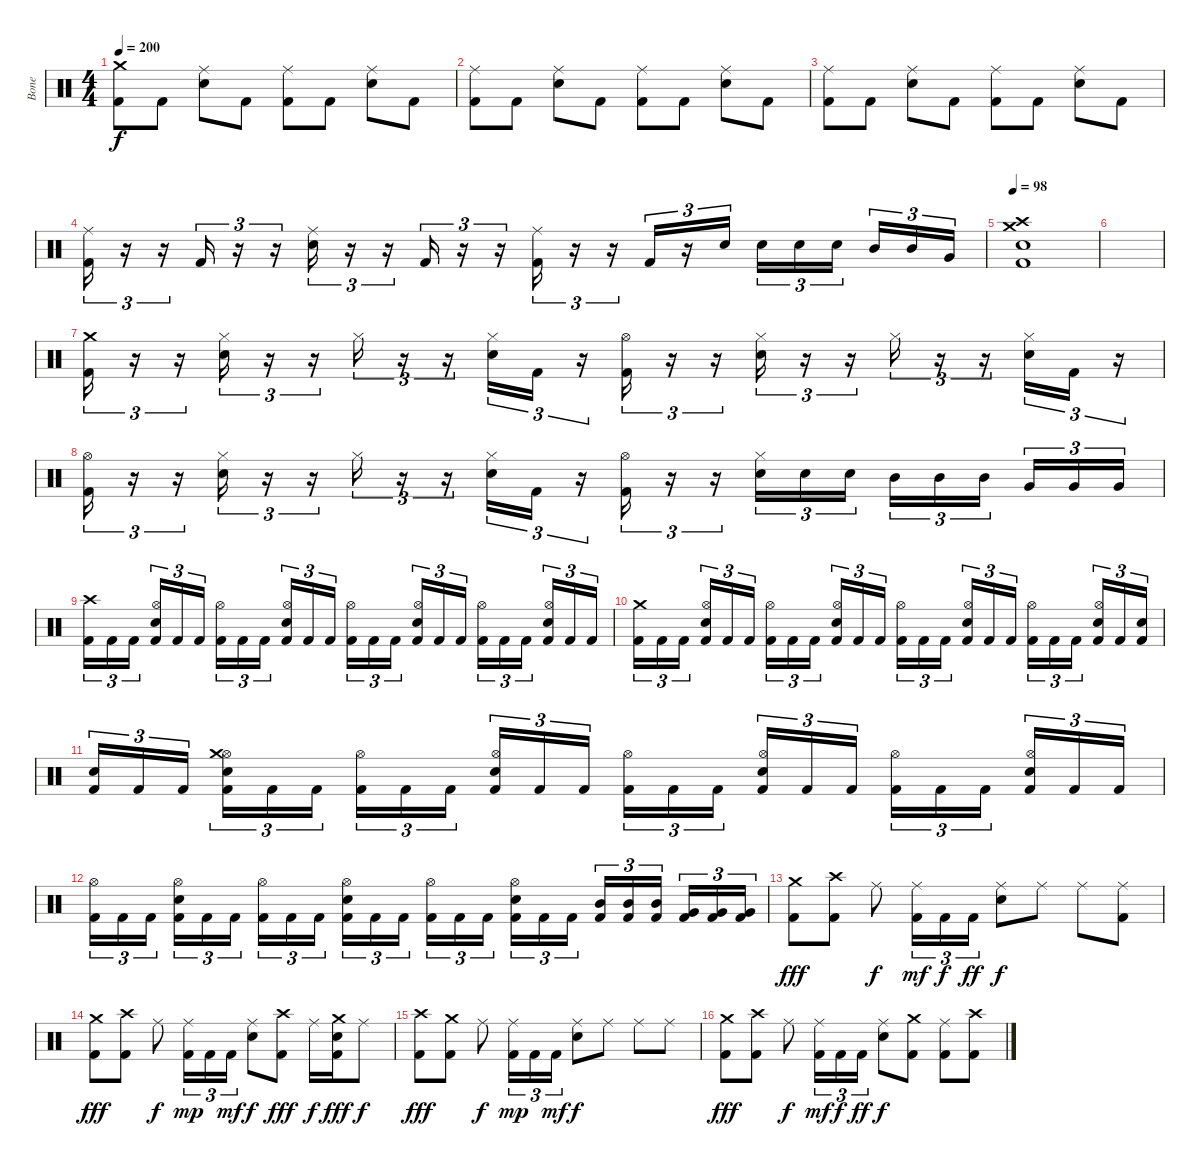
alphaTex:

\track ("Bone " "Bone ") {instrument percussion}
\staff {score}
\articulation defaults
\ts (4 4)
\tempo 200
\clef neutral
\ks c
("Crash medium (hit)" "Kick (hit) 2").8{dy f} "Kick (hit) 2".8 ("Ride (middle)" "Electric Snare (hit)").8 "Kick (hit) 2".8 ("Ride (middle)" "Kick (hit) 2").8 "Kick (hit) 2".8 ("Ride (middle)" "Electric Snare (hit)").8 "Kick (hit) 2".8 |
("Ride (middle)" "Kick (hit) 2").8 "Kick (hit) 2".8 ("Ride (middle)" "Electric Snare (hit)").8 "Kick (hit) 2".8 ("Ride (middle)" "Kick (hit) 2").8 "Kick (hit) 2".8 ("Ride (middle)" "Electric Snare (hit)").8 "Kick (hit) 2".8 |
("Ride (middle)" "Kick (hit) 2").8 "Kick (hit) 2".8 ("Ride (middle)" "Electric Snare (hit)").8 "Kick (hit) 2".8 ("Ride (middle)" "Kick (hit) 2").8 "Kick (hit) 2".8 ("Ride (middle)" "Electric Snare (hit)").8 "Kick (hit) 2".8 |
("Ride (middle)" "Kick (hit) 2").16{tu (3 2)} r.16{tu (3 2)} r.16{tu (3 2)} "Kick (hit) 2".16{tu (3 2)} r.16{tu (3 2)} r.16{tu (3 2)} ("Ride (middle)" "Electric Snare (hit)").16{tu (3 2)} r.16{tu (3 2)} r.16{tu (3 2)} "Kick (hit) 2".16{tu (3 2)} r.16{tu (3 2)} r.16{tu (3 2)} ("Ride (middle)" "Kick (hit) 2").16{tu (3 2)} r.16{tu (3 2)} r.16{tu (3 2)} "Kick (hit) 2".16{tu (3 2)} r.16{tu (3 2)} "Electric Snare (hit)".16{tu (3 2)} "Electric Snare (hit)".16{tu (3 2)} "Electric Snare (hit)".16{tu (3 2)} "Electric Snare (hit)".16{tu (3 2) beam splitsecondary} "Mid Tom (hit)".16{tu (3 2)} "Mid Tom (hit)".16{tu (3 2)} "Very Low Tom (hit)".16{tu (3 2)} |
\tempo 98
("Crash medium (hit)" "Crash high (hit)" "Electric Snare (hit)" "Kick (hit) 2").1 |
|
("Crash medium (hit)" "Kick (hit) 2").16{tu (3 2)} r.16{tu (3 2)} r.16{tu (3 2)} ("Hi-Hat (closed)" "Electric Snare (hit)").16{tu (3 2)} r.16{tu (3 2)} r.16{tu (3 2)} "Hi-Hat (closed)".16{tu (3 2)} r.16{tu (3 2)} r.16{tu (3 2)} ("Hi-Hat (closed)" "Electric Snare (hit)").16{tu (3 2)} "Kick (hit) 2".16{tu (3 2)} r.16{tu (3 2)} ("Hi-Hat (open)" "Kick (hit) 2").16{tu (3 2)} r.16{tu (3 2)} r.16{tu (3 2)} ("Hi-Hat (closed)" "Electric Snare (hit)").16{tu (3 2)} r.16{tu (3 2)} r.16{tu (3 2)} "Hi-Hat (closed)".16{tu (3 2)} r.16{tu (3 2)} r.16{tu (3 2)} ("Hi-Hat (closed)" "Electric Snare (hit)").16{tu (3 2)} "Kick (hit) 2".16{tu (3 2)} r.16{tu (3 2)} |
("Hi-Hat (open)" "Kick (hit) 2").16{tu (3 2)} r.16{tu (3 2)} r.16{tu (3 2)} ("Hi-Hat (closed)" "Electric Snare (hit)").16{tu (3 2)} r.16{tu (3 2)} r.16{tu (3 2)} "Hi-Hat (closed)".16{tu (3 2)} r.16{tu (3 2)} r.16{tu (3 2)} ("Hi-Hat (closed)" "Electric Snare (hit)").16{tu (3 2)} "Kick (hit) 2".16{tu (3 2)} r.16{tu (3 2)} ("Hi-Hat (open)" "Kick (hit) 2").16{tu (3 2)} r.16{tu (3 2)} r.16{tu (3 2)} ("Hi-Hat (closed)" "Electric Snare (hit)").16{tu (3 2)} "Electric Snare (hit)".16{tu (3 2)} "Electric Snare (hit)".16{tu (3 2)} "Mid Tom (hit)".16{tu (3 2)} "Mid Tom (hit)".16{tu (3 2)} "Mid Tom (hit)".16{tu (3 2) beam splitsecondary} "Very Low Tom (hit)".16{tu (3 2)} "Very Low Tom (hit)".16{tu (3 2)} "Very Low Tom (hit)".16{tu (3 2)} |
("Crash high (hit)" "Kick (hit) 2").16{tu (3 2)} "Kick (hit) 2".16{tu (3 2)} "Kick (hit) 2".16{tu (3 2) beam splitsecondary} ("Hi-Hat (open)" "Snare (hit) 2" "Kick (hit) 2").16{tu (3 2)} "Kick (hit) 2".16{tu (3 2)} "Kick (hit) 2".16{tu (3 2)} ("Hi-Hat (open)" "Kick (hit) 2").16{tu (3 2)} "Kick (hit) 2".16{tu (3 2)} "Kick (hit) 2".16{tu (3 2) beam splitsecondary} ("Hi-Hat (open)" "Snare (hit) 2" "Kick (hit) 2").16{tu (3 2)} "Kick (hit) 2".16{tu (3 2)} "Kick (hit) 2".16{tu (3 2)} ("Hi-Hat (open)" "Kick (hit) 2").16{tu (3 2)} "Kick (hit) 2".16{tu (3 2)} "Kick (hit) 2".16{tu (3 2) beam splitsecondary} ("Hi-Hat (open)" "Snare (hit) 2" "Kick (hit) 2").16{tu (3 2)} "Kick (hit) 2".16{tu (3 2)} "Kick (hit) 2".16{tu (3 2)} ("Hi-Hat (open)" "Kick (hit) 2").16{tu (3 2)} "Kick (hit) 2".16{tu (3 2)} "Kick (hit) 2".16{tu (3 2) beam splitsecondary} ("Hi-Hat (open)" "Snare (hit) 2" "Kick (hit) 2").16{tu (3 2)} "Kick (hit) 2".16{tu (3 2)} "Kick (hit) 2".16{tu (3 2)} |
("Crash medium (hit)" "Kick (hit) 2").16{tu (3 2)} "Kick (hit) 2".16{tu (3 2)} "Kick (hit) 2".16{tu (3 2) beam splitsecondary} ("Hi-Hat (open)" "Snare (hit) 2" "Kick (hit) 2").16{tu (3 2)} "Kick (hit) 2".16{tu (3 2)} "Kick (hit) 2".16{tu (3 2)} ("Hi-Hat (open)" "Kick (hit) 2").16{tu (3 2)} "Kick (hit) 2".16{tu (3 2)} "Kick (hit) 2".16{tu (3 2) beam splitsecondary} ("Hi-Hat (open)" "Snare (hit) 2" "Kick (hit) 2").16{tu (3 2)} "Kick (hit) 2".16{tu (3 2)} "Kick (hit) 2".16{tu (3 2)} ("Hi-Hat (open)" "Kick (hit) 2").16{tu (3 2)} "Kick (hit) 2".16{tu (3 2)} "Kick (hit) 2".16{tu (3 2) beam splitsecondary} ("Hi-Hat (open)" "Snare (hit) 2" "Kick (hit) 2").16{tu (3 2)} "Kick (hit) 2".16{tu (3 2)} "Kick (hit) 2".16{tu (3 2)} ("Hi-Hat (open)" "Kick (hit) 2").16{tu (3 2)} "Kick (hit) 2".16{tu (3 2)} "Kick (hit) 2".16{tu (3 2) beam splitsecondary} ("Hi-Hat (open)" "Snare (hit) 2" "Kick (hit) 2").16{tu (3 2)} "Kick (hit) 2".16{tu (3 2)} ("Snare (hit) 2" "Kick (hit) 2").16{tu (3 2)} |
("Snare (hit) 2" "Kick (hit) 2").16{tu (3 2)} "Kick (hit) 2".16{tu (3 2)} "Kick (hit) 2".16{tu (3 2) beam splitsecondary} ("Hi-Hat (open)" "Crash medium (hit)" "Snare (hit) 2" "Kick (hit) 2").16{tu (3 2)} "Kick (hit) 2".16{tu (3 2)} "Kick (hit) 2".16{tu (3 2)} ("Hi-Hat (open)" "Kick (hit) 2").16{tu (3 2)} "Kick (hit) 2".16{tu (3 2)} "Kick (hit) 2".16{tu (3 2) beam splitsecondary} ("Hi-Hat (open)" "Snare (hit) 2" "Kick (hit) 2").16{tu (3 2)} "Kick (hit) 2".16{tu (3 2)} "Kick (hit) 2".16{tu (3 2)} ("Hi-Hat (open)" "Kick (hit) 2").16{tu (3 2)} "Kick (hit) 2".16{tu (3 2)} "Kick (hit) 2".16{tu (3 2) beam splitsecondary} ("Hi-Hat (open)" "Snare (hit) 2" "Kick (hit) 2").16{tu (3 2)} "Kick (hit) 2".16{tu (3 2)} "Kick (hit) 2".16{tu (3 2)} ("Hi-Hat (open)" "Kick (hit) 2").16{tu (3 2)} "Kick (hit) 2".16{tu (3 2)} "Kick (hit) 2".16{tu (3 2) beam splitsecondary} ("Hi-Hat (open)" "Snare (hit) 2" "Kick (hit) 2").16{tu (3 2)} "Kick (hit) 2".16{tu (3 2)} "Kick (hit) 2".16{tu (3 2)} |
("Hi-Hat (open)" "Kick (hit) 2").16{tu (3 2)} "Kick (hit) 2".16{tu (3 2)} "Kick (hit) 2".16{tu (3 2) beam splitsecondary} ("Hi-Hat (open)" "Electric Snare (hit)" "Kick (hit) 2").16{tu (3 2)} "Kick (hit) 2".16{tu (3 2)} "Kick (hit) 2".16{tu (3 2)} ("Hi-Hat (open)" "Kick (hit) 2").16{tu (3 2)} "Kick (hit) 2".16{tu (3 2)} "Kick (hit) 2".16{tu (3 2) beam splitsecondary} ("Hi-Hat (open)" "Electric Snare (hit)" "Kick (hit) 2").16{tu (3 2)} "Kick (hit) 2".16{tu (3 2)} "Kick (hit) 2".16{tu (3 2)} ("Hi-Hat (open)" "Kick (hit) 2").16{tu (3 2)} "Kick (hit) 2".16{tu (3 2)} "Kick (hit) 2".16{tu (3 2) beam splitsecondary} ("Hi-Hat (open)" "Electric Snare (hit)" "Kick (hit) 2").16{tu (3 2)} "Kick (hit) 2".16{tu (3 2)} "Kick (hit) 2".16{tu (3 2)} ("Mid Tom (hit)" "Kick (hit) 2").16{tu (3 2)} ("Mid Tom (hit)" "Kick (hit) 2").16{tu (3 2)} ("Mid Tom (hit)" "Kick (hit) 2").16{tu (3 2) beam splitsecondary} ("Very Low Tom (hit)" "Kick (hit) 2").16{tu (3 2)} ("Very Low Tom (hit)" "Kick (hit) 2").16{tu (3 2)} ("Very Low Tom (hit)" "Kick (hit) 2").16{tu (3 2)} |
("Crash medium (hit)" "Kick (hit) 2").8{dy fff} ("Crash high (hit)" "Kick (hit) 2").8 "Ride (middle)".8{dy f} ("Ride (middle)" "Kick (hit) 2").16{tu (3 2) dy mf} "Kick (hit) 2".16{tu (3 2) dy f} "Kick (hit) 2".16{tu (3 2) dy ff} ("Ride (middle)" "Electric Snare (hit)").8{dy f} "Ride (middle)".8 "Ride (middle)".8 ("Ride (middle)" "Kick (hit) 2").8 |
("Crash medium (hit)" "Kick (hit) 2").8{dy fff} ("Crash high (hit)" "Kick (hit) 2").8 "Ride (middle)".8{dy f} ("Ride (middle)" "Kick (hit) 2").16{tu (3 2) dy mp} "Kick (hit) 2".16{tu (3 2)} "Kick (hit) 2".16{tu (3 2) dy mf} ("Ride (middle)" "Electric Snare (hit)").8{dy f} ("Crash high (hit)" "Kick (hit) 2").8{dy fff} "Ride (middle)".16{dy f} ("Crash medium (hit)" "Electric Snare (hit)" "Kick (hit) 2").16{dy fff} "Ride (middle)".8{dy f} |
("Crash high (hit)" "Kick (hit) 2").8{dy fff} ("Crash medium (hit)" "Kick (hit) 2").8 "Ride (middle)".8{dy f} ("Ride (middle)" "Kick (hit) 2").16{tu (3 2) dy mp} "Kick (hit) 2".16{tu (3 2)} "Kick (hit) 2".16{tu (3 2) dy mf} ("Ride (middle)" "Electric Snare (hit)").8{dy f} "Ride (middle)".8 "Ride (middle)".8 "Ride (middle)".8 |
("Crash medium (hit)" "Kick (hit) 2").8{dy fff} ("Crash high (hit)" "Kick (hit) 2").8 "Ride (middle)".8{dy f} ("Ride (middle)" "Kick (hit) 2").16{tu (3 2) dy mf} "Kick (hit) 2".16{tu (3 2) dy f} "Kick (hit) 2".16{tu (3 2) dy ff} ("Ride (middle)" "Electric Snare (hit)").8{dy f} ("Crash medium (hit)" "Kick (hit) 2").8 ("Ride (middle)" "Kick (hit) 2").8 ("Crash high (hit)" "Kick (hit) 2").8
